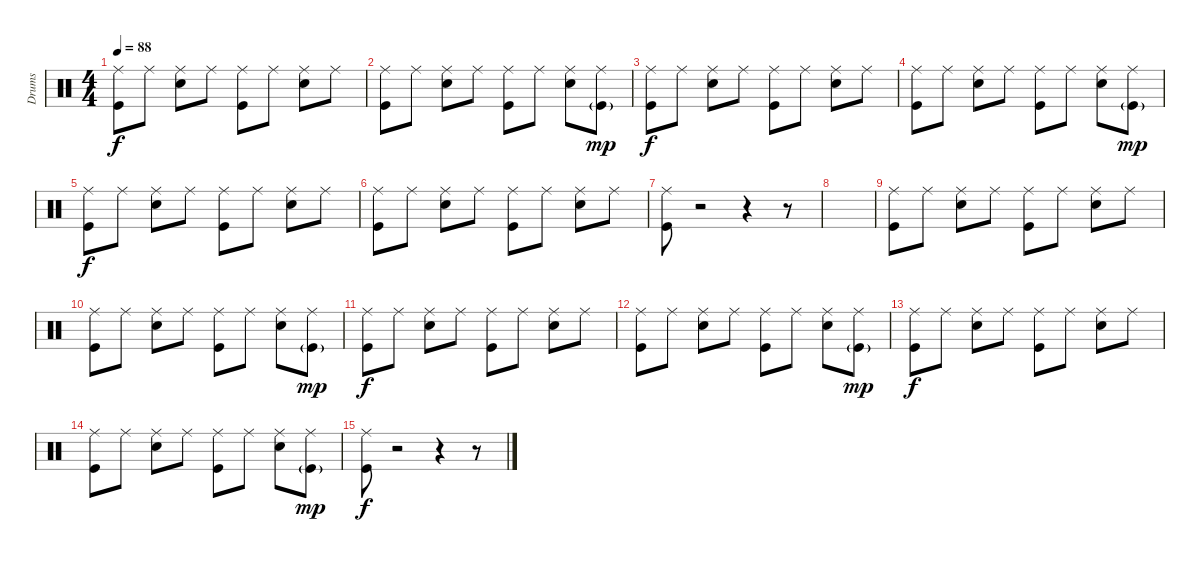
\track ("Drums" "Drums") {instrument percussion}
\staff {score}
\articulation defaults
\ts (4 4)
\tempo 88
\clef neutral
\ks c
("Ride (middle)" "Kick (hit)").8{dy f} "Ride (middle)".8 ("Ride (middle)" "Snare (hit) 2").8 "Ride (middle)".8 ("Ride (middle)" "Kick (hit)").8 "Ride (middle)".8 ("Ride (middle)" "Snare (hit) 2").8 "Ride (middle)".8 |
("Ride (middle)" "Kick (hit)").8 "Ride (middle)".8 ("Ride (middle)" "Snare (hit) 2").8 "Ride (middle)".8 ("Ride (middle)" "Kick (hit)").8 "Ride (middle)".8 ("Ride (middle)" "Snare (hit) 2").8 ("Ride (middle)" "Kick (hit)"{g}).8{dy mp} |
("Ride (middle)" "Kick (hit)").8{dy f} "Ride (middle)".8 ("Ride (middle)" "Snare (hit) 2").8 "Ride (middle)".8 ("Ride (middle)" "Kick (hit)").8 "Ride (middle)".8 ("Ride (middle)" "Snare (hit) 2").8 "Ride (middle)".8 |
("Ride (middle)" "Kick (hit)").8 "Ride (middle)".8 ("Ride (middle)" "Snare (hit) 2").8 "Ride (middle)".8 ("Ride (middle)" "Kick (hit)").8 "Ride (middle)".8 ("Ride (middle)" "Snare (hit) 2").8 ("Ride (middle)" "Kick (hit)"{g}).8{dy mp} |
("Ride (middle)" "Kick (hit)").8{dy f} "Ride (middle)".8 ("Ride (middle)" "Snare (hit) 2").8 "Ride (middle)".8 ("Ride (middle)" "Kick (hit)").8 "Ride (middle)".8 ("Ride (middle)" "Snare (hit) 2").8 "Ride (middle)".8 |
("Ride (middle)" "Kick (hit)").8 "Ride (middle)".8 ("Ride (middle)" "Snare (hit) 2").8 "Ride (middle)".8 ("Ride (middle)" "Kick (hit)").8 "Ride (middle)".8 ("Ride (middle)" "Snare (hit) 2").8 "Ride (middle)".8 |
("Ride (middle)" "Kick (hit)").8 r.2 r.4 r.8 |
|
("Ride (middle)" "Kick (hit)").8 "Ride (middle)".8 ("Ride (middle)" "Snare (hit) 2").8 "Ride (middle)".8 ("Ride (middle)" "Kick (hit)").8 "Ride (middle)".8 ("Ride (middle)" "Snare (hit) 2").8 "Ride (middle)".8 |
("Ride (middle)" "Kick (hit)").8 "Ride (middle)".8 ("Ride (middle)" "Snare (hit) 2").8 "Ride (middle)".8 ("Ride (middle)" "Kick (hit)").8 "Ride (middle)".8 ("Ride (middle)" "Snare (hit) 2").8 ("Ride (middle)" "Kick (hit)"{g}).8{dy mp} |
("Ride (middle)" "Kick (hit)").8{dy f} "Ride (middle)".8 ("Ride (middle)" "Snare (hit) 2").8 "Ride (middle)".8 ("Ride (middle)" "Kick (hit)").8 "Ride (middle)".8 ("Ride (middle)" "Snare (hit) 2").8 "Ride (middle)".8 |
("Ride (middle)" "Kick (hit)").8 "Ride (middle)".8 ("Ride (middle)" "Snare (hit) 2").8 "Ride (middle)".8 ("Ride (middle)" "Kick (hit)").8 "Ride (middle)".8 ("Ride (middle)" "Snare (hit) 2").8 ("Ride (middle)" "Kick (hit)"{g}).8{dy mp} |
("Ride (middle)" "Kick (hit)").8{dy f} "Ride (middle)".8 ("Ride (middle)" "Snare (hit) 2").8 "Ride (middle)".8 ("Ride (middle)" "Kick (hit)").8 "Ride (middle)".8 ("Ride (middle)" "Snare (hit) 2").8 "Ride (middle)".8 |
("Ride (middle)" "Kick (hit)").8 "Ride (middle)".8 ("Ride (middle)" "Snare (hit) 2").8 "Ride (middle)".8 ("Ride (middle)" "Kick (hit)").8 "Ride (middle)".8 ("Ride (middle)" "Snare (hit) 2").8 ("Ride (middle)" "Kick (hit)"{g}).8{dy mp} |
("Ride (middle)" "Kick (hit)").8{dy f} r.2 r.4 r.8
